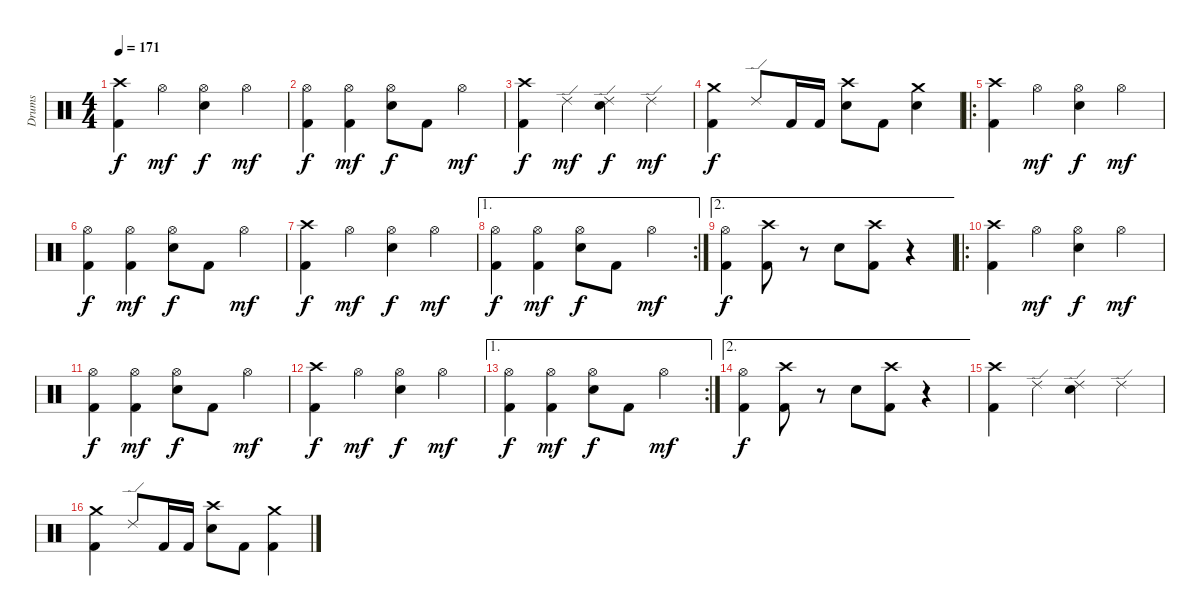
\track ("Drums" "Drums") {instrument percussion}
\staff {score}
\articulation defaults
\ts (4 4)
\tempo 171
\clef neutral
\ks c
("Crash high (hit)" "Kick (hit) 2").4{dy f} "Hi-Hat (open)".4{dy mf} ("Hi-Hat (open)" "Electric Snare (hit)").4{dy f} "Hi-Hat (open)".4{dy mf} |
("Hi-Hat (open)" "Kick (hit) 2").4{dy f} ("Hi-Hat (open)" "Kick (hit) 2").4{dy mf} ("Hi-Hat (open)" "Electric Snare (hit)").8{dy f} "Kick (hit) 2".8 "Hi-Hat (open)".4{dy mf} |
("Crash high (hit)" "Kick (hit) 2").4{dy f} "Ride (edge) 2".4{dy mf} ("Ride (edge) 2" "Electric Snare (hit)").4{dy f} "Ride (edge) 2".4{dy mf} |
("Crash medium (hit)" "Kick (hit) 2").4{dy f} "Ride (edge) 2".8 "Kick (hit) 2".16 "Kick (hit) 2".16 ("Crash high (hit)" "Electric Snare (hit)").8 "Kick (hit) 2".8 ("Crash medium (hit)" "Electric Snare (hit)").4 |
\ro
("Crash high (hit)" "Kick (hit) 2").4 "Hi-Hat (open)".4{dy mf} ("Hi-Hat (open)" "Electric Snare (hit)").4{dy f} "Hi-Hat (open)".4{dy mf} |
("Hi-Hat (open)" "Kick (hit) 2").4{dy f} ("Hi-Hat (open)" "Kick (hit) 2").4{dy mf} ("Hi-Hat (open)" "Electric Snare (hit)").8{dy f} "Kick (hit) 2".8 "Hi-Hat (open)".4{dy mf} |
("Crash high (hit)" "Kick (hit) 2").4{dy f} "Hi-Hat (open)".4{dy mf} ("Hi-Hat (open)" "Electric Snare (hit)").4{dy f} "Hi-Hat (open)".4{dy mf} |
\ae 1
\rc 2
("Hi-Hat (open)" "Kick (hit) 2").4{dy f} ("Hi-Hat (open)" "Kick (hit) 2").4{dy mf} ("Hi-Hat (open)" "Electric Snare (hit)").8{dy f} "Kick (hit) 2".8 "Hi-Hat (open)".4{dy mf} |
\ae 2
("Hi-Hat (open)" "Kick (hit) 2").4{dy f} ("Crash high (hit)" "Kick (hit) 2").8 r.8 "Electric Snare (hit)".8 ("Crash high (hit)" "Kick (hit) 2").8 r.4 |
\ro
("Crash high (hit)" "Kick (hit) 2").4 "Hi-Hat (open)".4{dy mf} ("Hi-Hat (open)" "Electric Snare (hit)").4{dy f} "Hi-Hat (open)".4{dy mf} |
("Hi-Hat (open)" "Kick (hit) 2").4{dy f} ("Hi-Hat (open)" "Kick (hit) 2").4{dy mf} ("Hi-Hat (open)" "Electric Snare (hit)").8{dy f} "Kick (hit) 2".8 "Hi-Hat (open)".4{dy mf} |
("Crash high (hit)" "Kick (hit) 2").4{dy f} "Hi-Hat (open)".4{dy mf} ("Hi-Hat (open)" "Electric Snare (hit)").4{dy f} "Hi-Hat (open)".4{dy mf} |
\ae 1
\rc 2
("Hi-Hat (open)" "Kick (hit) 2").4{dy f} ("Hi-Hat (open)" "Kick (hit) 2").4{dy mf} ("Hi-Hat (open)" "Electric Snare (hit)").8{dy f} "Kick (hit) 2".8 "Hi-Hat (open)".4{dy mf} |
\ae 2
("Hi-Hat (open)" "Kick (hit) 2").4{dy f} ("Crash high (hit)" "Kick (hit) 2").8 r.8 "Electric Snare (hit)".8 ("Crash high (hit)" "Kick (hit) 2").8 r.4 |
("Crash high (hit)" "Kick (hit) 2").4 "Ride (edge) 2".4 ("Ride (edge) 2" "Electric Snare (hit)").4 "Ride (edge) 2".4 |
("Crash medium (hit)" "Kick (hit) 2").4 "Ride (edge) 2".8 "Kick (hit) 2".16 "Kick (hit) 2".16 ("Crash high (hit)" "Electric Snare (hit)").8 "Kick (hit) 2".8 ("Crash medium (hit)" "Kick (hit) 2").4
